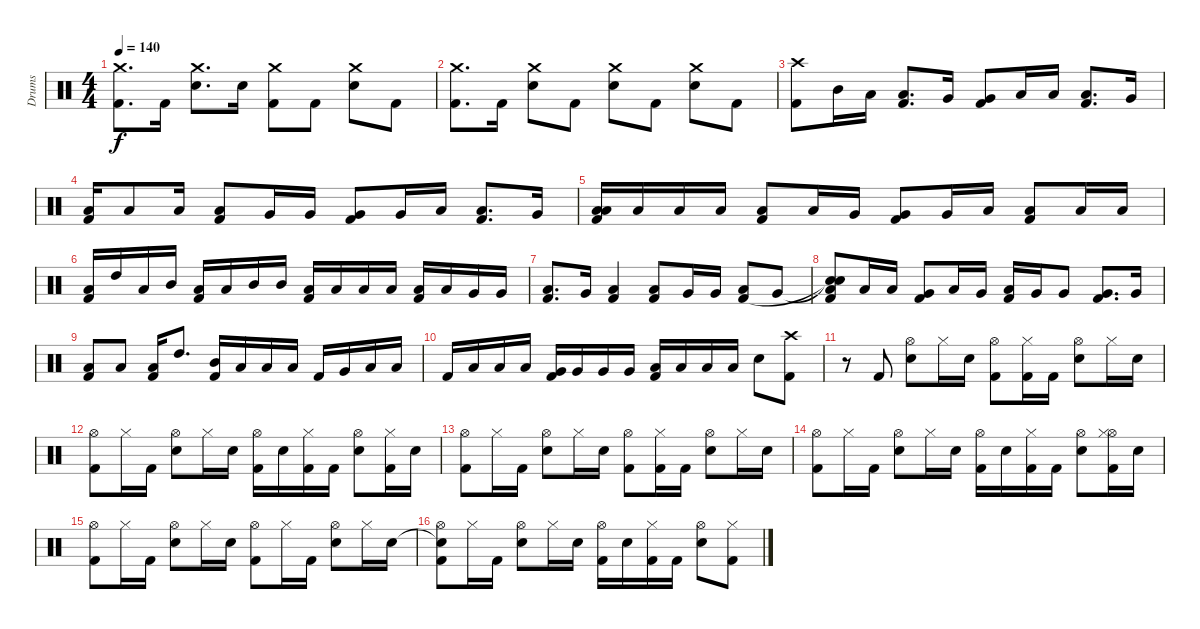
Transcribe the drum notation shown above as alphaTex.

\track ("Drums" "Drums") {instrument percussion}
\staff {score}
\articulation defaults
\ts (4 4)
\tempo 140
\clef neutral
\ks c
("Crash medium (hit)" "Kick (hit) 2").8{d dy f} "Kick (hit) 2".16 ("Crash medium (hit)" "Electric Snare (hit)").8{d} "Electric Snare (hit)".16 ("Crash medium (hit)" "Kick (hit) 2").8 "Kick (hit) 2".8 ("Crash medium (hit)" "Electric Snare (hit)").8 "Kick (hit) 2".8 |
("Crash medium (hit)" "Kick (hit) 2").8{d} "Kick (hit) 2".16 ("Crash medium (hit)" "Electric Snare (hit)").8 "Kick (hit) 2".8 ("Crash medium (hit)" "Electric Snare (hit)").8 "Kick (hit) 2".8 ("Crash medium (hit)" "Electric Snare (hit)").8 "Kick (hit) 2".8 |
("Crash high (hit)" "Kick (hit) 2").8 "Mid Tom (hit)".16 "Low Tom (hit)".16 ("Low Tom (hit)" "Kick (hit) 2").8{d} "Very Low Tom (hit)".16 ("Very Low Tom (hit)" "Kick (hit) 2").8 "Low Floor Tom (hit)".16 "Low Floor Tom (hit)".16 ("Low Floor Tom (hit)" "Kick (hit) 2").8{d} "Very Low Tom (hit)".16 |
("Low Floor Tom (hit)" "Kick (hit) 2").16 "Low Floor Tom (hit)".8 "Low Tom (hit)".16 ("Low Tom (hit)" "Kick (hit) 2").8 "Very Low Tom (hit)".16 "Very Low Tom (hit)".16 ("Very Low Tom (hit)" "Kick (hit) 2").8 "Very Low Tom (hit)".16 "Low Floor Tom (hit)".16 ("Low Floor Tom (hit)" "Kick (hit) 2").8{d} "Very Low Tom (hit)".16 |
("Low Floor Tom (hit)" "Low Floor Tom (hit)" "Kick (hit) 2").16 "Low Floor Tom (hit)".16 "Low Floor Tom (hit)".16 "Low Tom (hit)".16 ("Low Tom (hit)" "Kick (hit) 2").8 "Low Tom (hit)".16 "Very Low Tom (hit)".16 ("Very Low Tom (hit)" "Kick (hit) 2").8 "Very Low Tom (hit)".16 "Low Floor Tom (hit)".16 ("Low Floor Tom (hit)" "Kick (hit) 2").8 "Low Tom (hit)".16 "Low Tom (hit)".16 |
("Low Floor Tom (hit)" "Kick (hit) 2").16 "High Tom (hit)".16 "Low Floor Tom (hit)".16 "Mid Tom (hit)".16 ("Low Floor Tom (hit)" "Kick (hit) 2").16 "Low Floor Tom (hit)".16 "Mid Tom (hit)".16 "Mid Tom (hit)".16 ("Low Floor Tom (hit)" "Kick (hit) 2").16 "Low Floor Tom (hit)".16 "Low Tom (hit)".16 "Low Tom (hit)".16 ("Low Floor Tom (hit)" "Kick (hit) 2").16 "Low Floor Tom (hit)".16 "Very Low Tom (hit)".16 "Very Low Tom (hit)".16 |
("Low Floor Tom (hit)" "Kick (hit) 2").8{d} "Very Low Tom (hit)".16 ("Low Floor Tom (hit)" "Kick (hit) 2").4 ("Low Floor Tom (hit)" "Kick (hit) 2").8 "Very Low Tom (hit)".16 "Very Low Tom (hit)".16 ("Low Floor Tom (hit)" "Kick (hit) 2").8 "Very Low Tom (hit)".8 |
("Snare (hit)"{t} "Snare (hit)"{t} "Low Floor Tom (hit)" "Kick (hit) 2").8 "Low Tom (hit)".16 "Low Tom (hit)".16 ("Very Low Tom (hit)" "Kick (hit) 2").8 "Low Floor Tom (hit)".16 "Very Low Tom (hit)".16 ("Low Floor Tom (hit)" "Kick (hit) 2").16 "Very Low Tom (hit)".16 "Very Low Tom (hit)".8 ("Very Low Tom (hit)" "Kick (hit) 2").8{d} "Very Low Tom (hit)".16 |
("Low Floor Tom (hit)" "Kick (hit) 2").8 "Low Tom (hit)".8 ("Low Floor Tom (hit)" "Kick (hit) 2").16 "High Tom (hit)".8{d} ("Mid Tom (hit)" "Kick (hit) 2").16 "Low Floor Tom (hit)".16 "Low Tom (hit)".16 "Low Tom (hit)".16 "Kick (hit) 2".16 "Very Low Tom (hit)".16 "Low Tom (hit)".16 "Low Tom (hit)".16 |
"Kick (hit) 2".16 "Low Floor Tom (hit)".16 "Low Tom (hit)".16 "Low Tom (hit)".16 ("Very Low Tom (hit)" "Kick (hit) 2").16 "Very Low Tom (hit)".16 "Very Low Tom (hit)".16 "Very Low Tom (hit)".16 ("Low Floor Tom (hit)" "Kick (hit) 2").16 "Low Floor Tom (hit)".16 "Low Floor Tom (hit)".16 "Low Floor Tom (hit)".16 "Electric Snare (hit)".8 ("Crash high (hit)" "Kick (hit) 2").8 |
r.8 "Kick (hit) 2".8 ("Hi-Hat (open)" "Electric Snare (hit)").8 "Hi-Hat (closed)".16 "Electric Snare (hit)".16 ("Hi-Hat (open)" "Kick (hit) 2").8 ("Hi-Hat (closed)" "Kick (hit) 2").16 "Kick (hit) 2".16 ("Hi-Hat (open)" "Electric Snare (hit)").8 "Hi-Hat (closed)".16 "Electric Snare (hit)".16 |
("Hi-Hat (open)" "Kick (hit) 2").8 "Hi-Hat (closed)".16 "Kick (hit) 2".16 ("Hi-Hat (open)" "Electric Snare (hit)").8 "Hi-Hat (closed)".16 "Electric Snare (hit)".16 ("Hi-Hat (open)" "Kick (hit) 2").16 "Electric Snare (hit)".16 ("Hi-Hat (closed)" "Kick (hit) 2").16 "Kick (hit) 2".16 ("Hi-Hat (open)" "Electric Snare (hit)").8 ("Hi-Hat (closed)" "Kick (hit) 2").16 "Electric Snare (hit)".16 |
("Hi-Hat (open)" "Kick (hit) 2").8 "Hi-Hat (closed)".16 "Kick (hit) 2".16 ("Hi-Hat (open)" "Electric Snare (hit)").8 "Hi-Hat (closed)".16 "Electric Snare (hit)".16 ("Hi-Hat (open)" "Kick (hit) 2").8 ("Hi-Hat (closed)" "Kick (hit) 2").16 "Kick (hit) 2".16 ("Hi-Hat (open)" "Electric Snare (hit)").8 "Hi-Hat (closed)".16 "Electric Snare (hit)".16 |
("Hi-Hat (open)" "Kick (hit) 2").8 "Hi-Hat (closed)".16 "Kick (hit) 2".16 ("Hi-Hat (open)" "Electric Snare (hit)").8 "Hi-Hat (closed)".16 "Electric Snare (hit)".16 ("Hi-Hat (open)" "Kick (hit) 2").16 "Electric Snare (hit)".16 ("Hi-Hat (closed)" "Kick (hit) 2").16 "Kick (hit) 2".16 ("Hi-Hat (open)" "Electric Snare (hit)").8 ("Hi-Hat (open)" "Hi-Hat (closed)" "Kick (hit) 2").16 "Electric Snare (hit)".16 |
("Hi-Hat (open)" "Kick (hit) 2").8 "Hi-Hat (closed)".16 "Kick (hit) 2".16 ("Hi-Hat (open)" "Electric Snare (hit)").8 "Hi-Hat (closed)".16 "Electric Snare (hit)".16 ("Hi-Hat (open)" "Kick (hit) 2").8 "Hi-Hat (closed)".16 "Kick (hit) 2".16 ("Hi-Hat (open)" "Electric Snare (hit)").8 "Hi-Hat (closed)".16 "Electric Snare (hit)".16 |
("Snare (hit)"{t} "Hi-Hat (open)" "Kick (hit) 2").8 "Hi-Hat (closed)".16 "Kick (hit) 2".16 ("Hi-Hat (open)" "Electric Snare (hit)").8 "Hi-Hat (closed)".16 "Electric Snare (hit)".16 ("Hi-Hat (open)" "Kick (hit) 2").16 "Electric Snare (hit)".16 ("Hi-Hat (closed)" "Kick (hit) 2").16 "Kick (hit) 2".16 ("Hi-Hat (open)" "Electric Snare (hit)").8 ("Hi-Hat (closed)" "Kick (hit) 2").8
